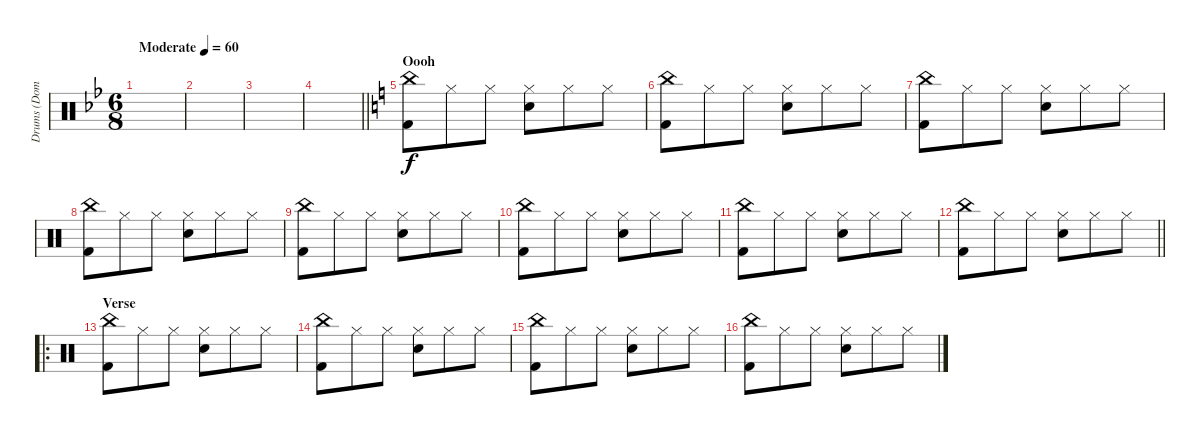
\track ("Drums (Dom)" "Drums (Dom") {instrument percussion}
\staff {score}
\articulation defaults
\ts (6 8)
\tempo (60 "Moderate")
\clef neutral
\ks bb
|
|
|
\barLineRight lightlight
|
\section ("" "Oooh")
\ks c
("China (hit)" "Kick (hit) 2").8 "Hi-Hat (closed)".8 "Hi-Hat (closed)".8 ("Hi-Hat (closed)" "Snare (hit) 2").8 "Hi-Hat (closed)".8 "Hi-Hat (closed)".8 |
("China (hit)" "Kick (hit) 2").8 "Hi-Hat (closed)".8 "Hi-Hat (closed)".8 ("Hi-Hat (closed)" "Snare (hit) 2").8 "Hi-Hat (closed)".8 "Hi-Hat (closed)".8 |
("China (hit)" "Kick (hit) 2").8 "Hi-Hat (closed)".8 "Hi-Hat (closed)".8 ("Hi-Hat (closed)" "Snare (hit) 2").8 "Hi-Hat (closed)".8 "Hi-Hat (closed)".8 |
("China (hit)" "Kick (hit) 2").8 "Hi-Hat (closed)".8 "Hi-Hat (closed)".8 ("Hi-Hat (closed)" "Snare (hit) 2").8 "Hi-Hat (closed)".8 "Hi-Hat (closed)".8 |
("China (hit)" "Kick (hit) 2").8 "Hi-Hat (closed)".8 "Hi-Hat (closed)".8 ("Hi-Hat (closed)" "Snare (hit) 2").8 "Hi-Hat (closed)".8 "Hi-Hat (closed)".8 |
("China (hit)" "Kick (hit) 2").8 "Hi-Hat (closed)".8 "Hi-Hat (closed)".8 ("Hi-Hat (closed)" "Snare (hit) 2").8 "Hi-Hat (closed)".8 "Hi-Hat (closed)".8 |
("China (hit)" "Kick (hit) 2").8 "Hi-Hat (closed)".8 "Hi-Hat (closed)".8 ("Hi-Hat (closed)" "Snare (hit) 2").8 "Hi-Hat (closed)".8 "Hi-Hat (closed)".8 |
\barLineRight lightlight
("China (hit)" "Kick (hit) 2").8 "Hi-Hat (closed)".8 "Hi-Hat (closed)".8 ("Hi-Hat (closed)" "Snare (hit) 2").8 "Hi-Hat (closed)".8 "Hi-Hat (closed)".8 |
\ro
\section ("" "Verse")
("China (hit)" "Kick (hit) 2").8 "Hi-Hat (closed)".8 "Hi-Hat (closed)".8 ("Hi-Hat (closed)" "Snare (hit) 2").8 "Hi-Hat (closed)".8 "Hi-Hat (closed)".8 |
("China (hit)" "Kick (hit) 2").8 "Hi-Hat (closed)".8 "Hi-Hat (closed)".8 ("Hi-Hat (closed)" "Snare (hit) 2").8 "Hi-Hat (closed)".8 "Hi-Hat (closed)".8 |
("China (hit)" "Kick (hit) 2").8 "Hi-Hat (closed)".8 "Hi-Hat (closed)".8 ("Hi-Hat (closed)" "Snare (hit) 2").8 "Hi-Hat (closed)".8 "Hi-Hat (closed)".8 |
("China (hit)" "Kick (hit) 2").8 "Hi-Hat (closed)".8 "Hi-Hat (closed)".8 ("Hi-Hat (closed)" "Snare (hit) 2").8 "Hi-Hat (closed)".8 "Hi-Hat (closed)".8
